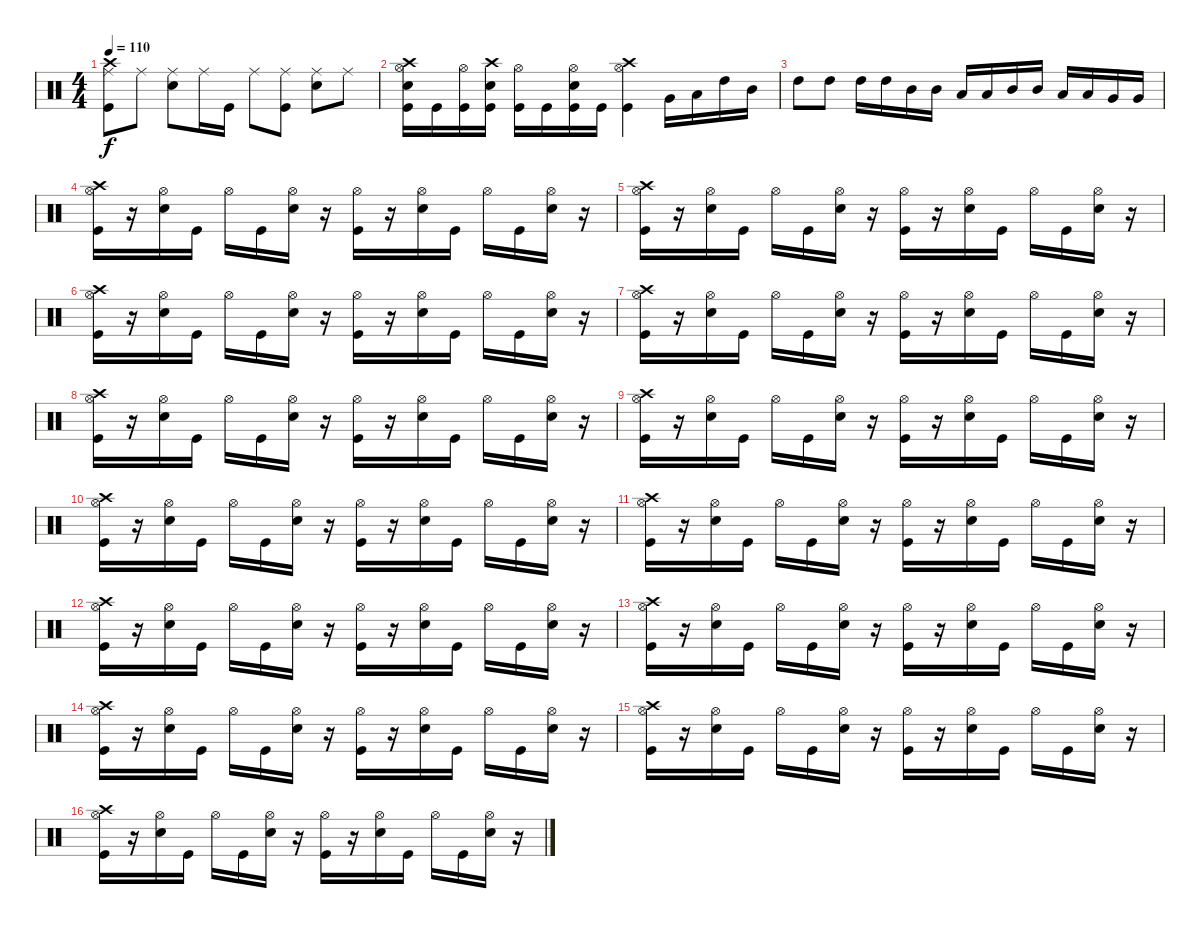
\track "" {instrument percussion}
\staff {score}
\articulation defaults
\ts (4 4)
\tempo 110
\clef neutral
\ks c
("Ride (middle)" "Kick (hit)" "Crash high (hit)").8{dy f} "Ride (middle)".8 ("Ride (middle)" "Snare (hit) 2").8 "Ride (middle)".16 "Kick (hit)".16 "Ride (middle)".8 ("Ride (middle)" "Kick (hit)").8 ("Snare (hit) 2" "Ride (middle)").8 "Ride (middle)".8 |
("Crash high (hit)" "Electric Snare (hit)" "Kick (hit)" "Hi-Hat (open)").16 "Kick (hit)".16 ("Kick (hit)" "Hi-Hat (open)").16 ("Crash high (hit)" "Electric Snare (hit)" "Kick (hit)").16 ("Kick (hit)" "Hi-Hat (open)").16 "Kick (hit)".16 ("Electric Snare (hit)" "Kick (hit)" "Hi-Hat (open)").16 "Kick (hit)".16 ("Hi-Hat (open)" "Kick (hit)" "Crash high (hit)").4 "Very Low Tom (hit)".16 "Low Tom (hit)".16 "High Tom (hit)".16 "Mid Tom (hit)".16 |
"High Tom (hit)".8 "High Tom (hit)".8 "High Tom (hit)".16 "High Tom (hit)".16 "Mid Tom (hit)".16 "Mid Tom (hit)".16 "Low Tom (hit)".16 "Low Tom (hit)".16 "Mid Tom (hit)".16 "Mid Tom (hit)".16 "Low Tom (hit)".16 "Low Tom (hit)".16 "Very Low Tom (hit)".16 "Very Low Tom (hit)".16 |
("Crash high (hit)" "Kick (hit)" "Hi-Hat (open)").16 r.16 ("Electric Snare (hit)" "Hi-Hat (open)").16 "Kick (hit)".16 "Hi-Hat (open)".16 "Kick (hit)".16 ("Electric Snare (hit)" "Hi-Hat (open)").16 r.16 ("Hi-Hat (open)" "Kick (hit)").16 r.16 ("Hi-Hat (open)" "Electric Snare (hit)").16 "Kick (hit)".16 "Hi-Hat (open)".16 "Kick (hit)".16 ("Hi-Hat (open)" "Electric Snare (hit)").16 r.16 |
("Crash high (hit)" "Kick (hit)" "Hi-Hat (open)").16 r.16 ("Electric Snare (hit)" "Hi-Hat (open)").16 "Kick (hit)".16 "Hi-Hat (open)".16 "Kick (hit)".16 ("Electric Snare (hit)" "Hi-Hat (open)").16 r.16 ("Hi-Hat (open)" "Kick (hit)").16 r.16 ("Hi-Hat (open)" "Electric Snare (hit)").16 "Kick (hit)".16 "Hi-Hat (open)".16 "Kick (hit)".16 ("Hi-Hat (open)" "Electric Snare (hit)").16 r.16 |
("Crash high (hit)" "Kick (hit)" "Hi-Hat (open)").16 r.16 ("Electric Snare (hit)" "Hi-Hat (open)").16 "Kick (hit)".16 "Hi-Hat (open)".16 "Kick (hit)".16 ("Electric Snare (hit)" "Hi-Hat (open)").16 r.16 ("Hi-Hat (open)" "Kick (hit)").16 r.16 ("Hi-Hat (open)" "Electric Snare (hit)").16 "Kick (hit)".16 "Hi-Hat (open)".16 "Kick (hit)".16 ("Hi-Hat (open)" "Electric Snare (hit)").16 r.16 |
("Crash high (hit)" "Kick (hit)" "Hi-Hat (open)").16 r.16 ("Electric Snare (hit)" "Hi-Hat (open)").16 "Kick (hit)".16 "Hi-Hat (open)".16 "Kick (hit)".16 ("Electric Snare (hit)" "Hi-Hat (open)").16 r.16 ("Hi-Hat (open)" "Kick (hit)").16 r.16 ("Hi-Hat (open)" "Electric Snare (hit)").16 "Kick (hit)".16 "Hi-Hat (open)".16 "Kick (hit)".16 ("Hi-Hat (open)" "Electric Snare (hit)").16 r.16 |
("Crash high (hit)" "Kick (hit)" "Hi-Hat (open)").16 r.16 ("Electric Snare (hit)" "Hi-Hat (open)").16 "Kick (hit)".16 "Hi-Hat (open)".16 "Kick (hit)".16 ("Electric Snare (hit)" "Hi-Hat (open)").16 r.16 ("Hi-Hat (open)" "Kick (hit)").16 r.16 ("Hi-Hat (open)" "Electric Snare (hit)").16 "Kick (hit)".16 "Hi-Hat (open)".16 "Kick (hit)".16 ("Hi-Hat (open)" "Electric Snare (hit)").16 r.16 |
("Crash high (hit)" "Kick (hit)" "Hi-Hat (open)").16 r.16 ("Electric Snare (hit)" "Hi-Hat (open)").16 "Kick (hit)".16 "Hi-Hat (open)".16 "Kick (hit)".16 ("Electric Snare (hit)" "Hi-Hat (open)").16 r.16 ("Hi-Hat (open)" "Kick (hit)").16 r.16 ("Hi-Hat (open)" "Electric Snare (hit)").16 "Kick (hit)".16 "Hi-Hat (open)".16 "Kick (hit)".16 ("Hi-Hat (open)" "Electric Snare (hit)").16 r.16 |
("Crash high (hit)" "Kick (hit)" "Hi-Hat (open)").16 r.16 ("Electric Snare (hit)" "Hi-Hat (open)").16 "Kick (hit)".16 "Hi-Hat (open)".16 "Kick (hit)".16 ("Electric Snare (hit)" "Hi-Hat (open)").16 r.16 ("Hi-Hat (open)" "Kick (hit)").16 r.16 ("Hi-Hat (open)" "Electric Snare (hit)").16 "Kick (hit)".16 "Hi-Hat (open)".16 "Kick (hit)".16 ("Hi-Hat (open)" "Electric Snare (hit)").16 r.16 |
("Crash high (hit)" "Kick (hit)" "Hi-Hat (open)").16 r.16 ("Electric Snare (hit)" "Hi-Hat (open)").16 "Kick (hit)".16 "Hi-Hat (open)".16 "Kick (hit)".16 ("Electric Snare (hit)" "Hi-Hat (open)").16 r.16 ("Hi-Hat (open)" "Kick (hit)").16 r.16 ("Hi-Hat (open)" "Electric Snare (hit)").16 "Kick (hit)".16 "Hi-Hat (open)".16 "Kick (hit)".16 ("Hi-Hat (open)" "Electric Snare (hit)").16 r.16 |
("Crash high (hit)" "Kick (hit)" "Hi-Hat (open)").16 r.16 ("Electric Snare (hit)" "Hi-Hat (open)").16 "Kick (hit)".16 "Hi-Hat (open)".16 "Kick (hit)".16 ("Electric Snare (hit)" "Hi-Hat (open)").16 r.16 ("Hi-Hat (open)" "Kick (hit)").16 r.16 ("Hi-Hat (open)" "Electric Snare (hit)").16 "Kick (hit)".16 "Hi-Hat (open)".16 "Kick (hit)".16 ("Hi-Hat (open)" "Electric Snare (hit)").16 r.16 |
("Crash high (hit)" "Kick (hit)" "Hi-Hat (open)").16 r.16 ("Electric Snare (hit)" "Hi-Hat (open)").16 "Kick (hit)".16 "Hi-Hat (open)".16 "Kick (hit)".16 ("Electric Snare (hit)" "Hi-Hat (open)").16 r.16 ("Hi-Hat (open)" "Kick (hit)").16 r.16 ("Hi-Hat (open)" "Electric Snare (hit)").16 "Kick (hit)".16 "Hi-Hat (open)".16 "Kick (hit)".16 ("Hi-Hat (open)" "Electric Snare (hit)").16 r.16 |
("Crash high (hit)" "Kick (hit)" "Hi-Hat (open)").16 r.16 ("Electric Snare (hit)" "Hi-Hat (open)").16 "Kick (hit)".16 "Hi-Hat (open)".16 "Kick (hit)".16 ("Electric Snare (hit)" "Hi-Hat (open)").16 r.16 ("Hi-Hat (open)" "Kick (hit)").16 r.16 ("Hi-Hat (open)" "Electric Snare (hit)").16 "Kick (hit)".16 "Hi-Hat (open)".16 "Kick (hit)".16 ("Hi-Hat (open)" "Electric Snare (hit)").16 r.16 |
("Crash high (hit)" "Kick (hit)" "Hi-Hat (open)").16 r.16 ("Electric Snare (hit)" "Hi-Hat (open)").16 "Kick (hit)".16 "Hi-Hat (open)".16 "Kick (hit)".16 ("Electric Snare (hit)" "Hi-Hat (open)").16 r.16 ("Hi-Hat (open)" "Kick (hit)").16 r.16 ("Hi-Hat (open)" "Electric Snare (hit)").16 "Kick (hit)".16 "Hi-Hat (open)".16 "Kick (hit)".16 ("Hi-Hat (open)" "Electric Snare (hit)").16 r.16 |
("Crash high (hit)" "Kick (hit)" "Hi-Hat (open)").16 r.16 ("Electric Snare (hit)" "Hi-Hat (open)").16 "Kick (hit)".16 "Hi-Hat (open)".16 "Kick (hit)".16 ("Electric Snare (hit)" "Hi-Hat (open)").16 r.16 ("Hi-Hat (open)" "Kick (hit)").16 r.16 ("Hi-Hat (open)" "Electric Snare (hit)").16 "Kick (hit)".16 "Hi-Hat (open)".16 "Kick (hit)".16 ("Hi-Hat (open)" "Electric Snare (hit)").16 r.16
